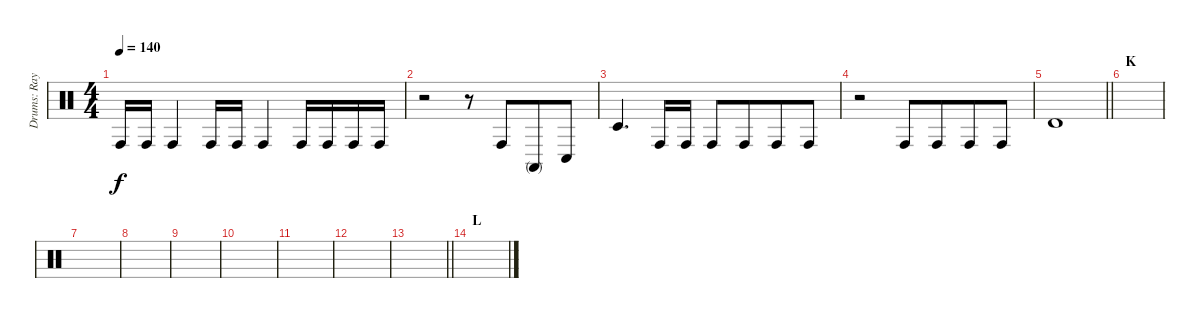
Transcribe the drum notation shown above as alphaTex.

\track ("Drums: Ray Cooper" "Drums: Ray") {instrument percussion}
\staff {score}
\articulation defaults
\ts (4 4)
\tempo 140
\clef neutral
\ks c "Conga high (hit)".16{dy f} "Conga high (hit)".16 "Conga high (hit)".4 "Conga high (hit)".16 "Conga high (hit)".16 "Conga high (hit)".4 "Conga high (hit)".16 "Conga high (hit)".16 "Conga high (hit)".16 "Conga high (hit)".16
|
r.2 r.8 "Conga high (hit)".8{beam merge} "Conga high (mute)".8 "Conga low (hit)".8 |
"Timbale low (hit)".4{d} "Conga high (hit)".16 "Conga high (hit)".16 "Conga high (hit)".8 "Conga high (hit)".8{beam merge} "Conga high (hit)".8 "Conga high (hit)".8 |
r.2 "Conga high (hit)".8 "Conga high (hit)".8{beam merge} "Conga high (hit)".8 "Conga high (hit)".8 |
\barLineRight lightlight "Timbale high (hit)".1
|
\section ("" "K")
|
|
|
|
|
|
|
\barLineRight lightlight
|
\section ("" "L")
